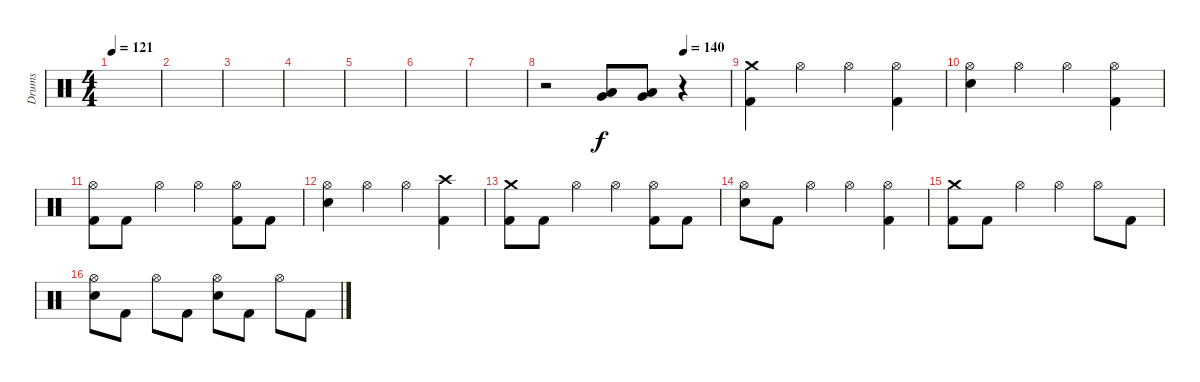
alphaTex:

\track ("Drums" "Drums") {instrument percussion}
\staff {score}
\articulation defaults
\ts (4 4)
\tempo 121
\clef neutral
\ks c
|
|
|
|
|
|
|
\tempo (140 0.75)
r.2 ("Very Low Tom (hit)" "Low Floor Tom (hit)").8 ("Very Low Tom (hit)" "Low Floor Tom (hit)").8 r.4 |
("Crash medium (hit)" "Kick (hit) 2").4 "Hi-Hat (open)".4 "Hi-Hat (open)".4 ("Hi-Hat (open)" "Kick (hit) 2").4 |
("Hi-Hat (open)" "Electric Snare (hit)").4 "Hi-Hat (open)".4 "Hi-Hat (open)".4 ("Hi-Hat (open)" "Kick (hit) 2").4 |
("Hi-Hat (open)" "Kick (hit) 2").8 "Kick (hit) 2".8 "Hi-Hat (open)".4 "Hi-Hat (open)".4 ("Hi-Hat (open)" "Kick (hit) 2").8 "Kick (hit) 2".8 |
("Hi-Hat (open)" "Electric Snare (hit)").4 "Hi-Hat (open)".4 "Hi-Hat (open)".4 ("Crash high (hit)" "Kick (hit) 2").4 |
("Crash medium (hit)" "Kick (hit) 2").8 "Kick (hit) 2".8 "Hi-Hat (open)".4 "Hi-Hat (open)".4 ("Hi-Hat (open)" "Kick (hit) 2").8 "Kick (hit) 2".8 |
("Hi-Hat (open)" "Electric Snare (hit)").8 "Kick (hit) 2".8 "Hi-Hat (open)".4 "Hi-Hat (open)".4 ("Hi-Hat (open)" "Kick (hit) 2").4 |
("Crash medium (hit)" "Kick (hit) 2").8 "Kick (hit) 2".8 "Hi-Hat (open)".4 "Hi-Hat (open)".4 "Hi-Hat (open)".8 "Kick (hit) 2".8 |
("Hi-Hat (open)" "Electric Snare (hit)").8 "Kick (hit) 2".8 "Hi-Hat (open)".8 "Kick (hit) 2".8 ("Hi-Hat (open)" "Electric Snare (hit)").8 "Kick (hit) 2".8 "Hi-Hat (open)".8 "Kick (hit) 2".8
